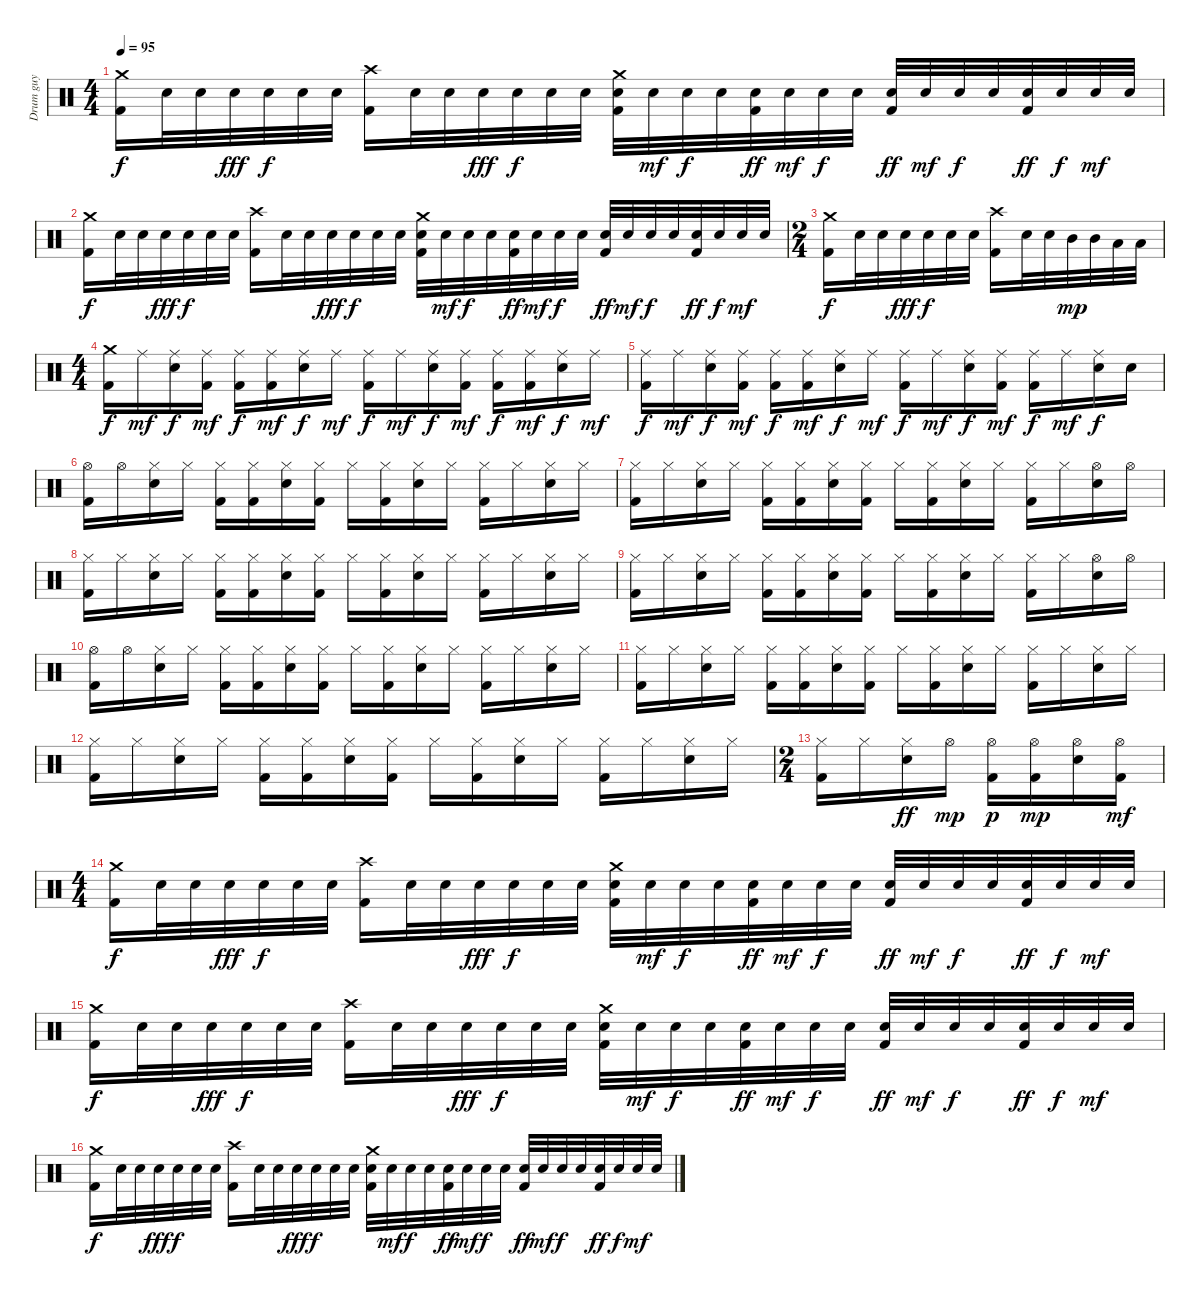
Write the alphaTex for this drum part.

\track ("Drum guy" "Drum guy") {instrument percussion}
\staff {score}
\articulation defaults
\ts (4 4)
\tempo 95
\clef neutral
\ks c
("Crash medium (hit)" "Kick (hit) 2").16{dy f} "Electric Snare (hit)".32 "Electric Snare (hit)".32 "Electric Snare (hit)".32{dy fff} "Electric Snare (hit)".32{dy f} "Electric Snare (hit)".32 "Electric Snare (hit)".32 ("Crash high (hit)" "Kick (hit) 2").16 "Electric Snare (hit)".32 "Electric Snare (hit)".32 "Electric Snare (hit)".32{dy fff} "Electric Snare (hit)".32{dy f} "Electric Snare (hit)".32 "Electric Snare (hit)".32 ("Crash medium (hit)" "Electric Snare (hit)" "Kick (hit) 2").32 "Electric Snare (hit)".32{dy mf} "Electric Snare (hit)".32{dy f} "Electric Snare (hit)".32 ("Electric Snare (hit)" "Kick (hit) 2").32{dy ff} "Electric Snare (hit)".32{dy mf} "Electric Snare (hit)".32{dy f} "Electric Snare (hit)".32 ("Electric Snare (hit)" "Kick (hit) 2").32{dy ff} "Electric Snare (hit)".32{dy mf} "Electric Snare (hit)".32{dy f} "Electric Snare (hit)".32 ("Electric Snare (hit)" "Kick (hit) 2").32{dy ff} "Electric Snare (hit)".32{dy f} "Electric Snare (hit)".32{dy mf} "Electric Snare (hit)".32 |
("Crash medium (hit)" "Kick (hit) 2").16{dy f} "Electric Snare (hit)".32 "Electric Snare (hit)".32 "Electric Snare (hit)".32{dy fff} "Electric Snare (hit)".32{dy f} "Electric Snare (hit)".32 "Electric Snare (hit)".32 ("Crash high (hit)" "Kick (hit) 2").16 "Electric Snare (hit)".32 "Electric Snare (hit)".32 "Electric Snare (hit)".32{dy fff} "Electric Snare (hit)".32{dy f} "Electric Snare (hit)".32 "Electric Snare (hit)".32 ("Crash medium (hit)" "Electric Snare (hit)" "Kick (hit) 2").32 "Electric Snare (hit)".32{dy mf} "Electric Snare (hit)".32{dy f} "Electric Snare (hit)".32 ("Electric Snare (hit)" "Kick (hit) 2").32{dy ff} "Electric Snare (hit)".32{dy mf} "Electric Snare (hit)".32{dy f} "Electric Snare (hit)".32 ("Electric Snare (hit)" "Kick (hit) 2").32{dy ff} "Electric Snare (hit)".32{dy mf} "Electric Snare (hit)".32{dy f} "Electric Snare (hit)".32 ("Electric Snare (hit)" "Kick (hit) 2").32{dy ff} "Electric Snare (hit)".32{dy f} "Electric Snare (hit)".32{dy mf} "Electric Snare (hit)".32 |
\ts (2 4)
("Crash medium (hit)" "Kick (hit) 2").16{dy f} "Electric Snare (hit)".32 "Electric Snare (hit)".32 "Electric Snare (hit)".32{dy fff} "Electric Snare (hit)".32{dy f} "Electric Snare (hit)".32 "Electric Snare (hit)".32 ("Crash high (hit)" "Kick (hit) 2").16 "Electric Snare (hit)".32 "Electric Snare (hit)".32 "Mid Tom (hit)".32{dy mp} "Mid Tom (hit)".32 "Low Tom (hit)".32 "Low Tom (hit)".32 |
\ts (4 4)
("Crash medium (hit)" "Kick (hit) 2").16{dy f} "Ride (middle)".16{dy mf} ("Ride (middle)" "Electric Snare (hit)").16{dy f} ("Ride (middle)" "Kick (hit) 2").16{dy mf} ("Ride (middle)" "Kick (hit) 2").16{dy f} ("Ride (middle)" "Kick (hit) 2").16{dy mf} ("Ride (middle)" "Electric Snare (hit)").16{dy f} "Ride (middle)".16{dy mf} ("Ride (middle)" "Kick (hit) 2").16{dy f} "Ride (middle)".16{dy mf} ("Ride (middle)" "Electric Snare (hit)").16{dy f} ("Ride (middle)" "Kick (hit) 2").16{dy mf} ("Ride (middle)" "Kick (hit) 2").16{dy f} ("Ride (middle)" "Kick (hit) 2").16{dy mf} ("Ride (middle)" "Electric Snare (hit)").16{dy f} "Ride (middle)".16{dy mf} |
("Ride (middle)" "Kick (hit) 2").16{dy f} "Ride (middle)".16{dy mf} ("Ride (middle)" "Electric Snare (hit)").16{dy f} ("Ride (middle)" "Kick (hit) 2").16{dy mf} ("Ride (middle)" "Kick (hit) 2").16{dy f} ("Ride (middle)" "Kick (hit) 2").16{dy mf} ("Ride (middle)" "Electric Snare (hit)").16{dy f} "Ride (middle)".16{dy mf} ("Ride (middle)" "Kick (hit) 2").16{dy f} "Ride (middle)".16{dy mf} ("Ride (middle)" "Electric Snare (hit)").16{dy f} ("Ride (middle)" "Kick (hit) 2").16{dy mf} ("Ride (middle)" "Kick (hit) 2").16{dy f} "Ride (middle)".16{dy mf} ("Ride (middle)" "Electric Snare (hit)").16{dy f} "Electric Snare (hit)".16 |
("Hi-Hat (open)" "Kick (hit) 2").16 "Hi-Hat (open)".16 ("Hi-Hat (closed)" "Electric Snare (hit)").16 "Hi-Hat (closed)".16 ("Hi-Hat (closed)" "Kick (hit) 2").16 ("Hi-Hat (closed)" "Kick (hit) 2").16 ("Hi-Hat (closed)" "Electric Snare (hit)").16 ("Hi-Hat (closed)" "Kick (hit) 2").16 "Hi-Hat (closed)".16 ("Hi-Hat (closed)" "Kick (hit) 2").16 ("Hi-Hat (closed)" "Electric Snare (hit)").16 "Hi-Hat (closed)".16 ("Hi-Hat (closed)" "Kick (hit) 2").16 "Hi-Hat (closed)".16 ("Hi-Hat (closed)" "Electric Snare (hit)").16 "Hi-Hat (closed)".16 |
("Hi-Hat (closed)" "Kick (hit) 2").16 "Hi-Hat (closed)".16 ("Hi-Hat (closed)" "Electric Snare (hit)").16 "Hi-Hat (closed)".16 ("Hi-Hat (closed)" "Kick (hit) 2").16 ("Hi-Hat (closed)" "Kick (hit) 2").16 ("Hi-Hat (closed)" "Electric Snare (hit)").16 ("Hi-Hat (closed)" "Kick (hit) 2").16 "Hi-Hat (closed)".16 ("Hi-Hat (closed)" "Kick (hit) 2").16 ("Hi-Hat (closed)" "Electric Snare (hit)").16 "Hi-Hat (closed)".16 ("Hi-Hat (closed)" "Kick (hit) 2").16 "Hi-Hat (closed)".16 ("Hi-Hat (open)" "Electric Snare (hit)").16 "Hi-Hat (open)".16 |
("Hi-Hat (closed)" "Kick (hit) 2").16 "Hi-Hat (closed)".16 ("Hi-Hat (closed)" "Electric Snare (hit)").16 "Hi-Hat (closed)".16 ("Hi-Hat (closed)" "Kick (hit) 2").16 ("Hi-Hat (closed)" "Kick (hit) 2").16 ("Hi-Hat (closed)" "Electric Snare (hit)").16 ("Hi-Hat (closed)" "Kick (hit) 2").16 "Hi-Hat (closed)".16 ("Hi-Hat (closed)" "Kick (hit) 2").16 ("Hi-Hat (closed)" "Electric Snare (hit)").16 "Hi-Hat (closed)".16 ("Hi-Hat (closed)" "Kick (hit) 2").16 "Hi-Hat (closed)".16 ("Hi-Hat (closed)" "Electric Snare (hit)").16 "Hi-Hat (closed)".16 |
("Hi-Hat (closed)" "Kick (hit) 2").16 "Hi-Hat (closed)".16 ("Hi-Hat (closed)" "Electric Snare (hit)").16 "Hi-Hat (closed)".16 ("Hi-Hat (closed)" "Kick (hit) 2").16 ("Hi-Hat (closed)" "Kick (hit) 2").16 ("Hi-Hat (closed)" "Electric Snare (hit)").16 ("Hi-Hat (closed)" "Kick (hit) 2").16 "Hi-Hat (closed)".16 ("Hi-Hat (closed)" "Kick (hit) 2").16 ("Hi-Hat (closed)" "Electric Snare (hit)").16 "Hi-Hat (closed)".16 ("Hi-Hat (closed)" "Kick (hit) 2").16 "Hi-Hat (closed)".16 ("Hi-Hat (open)" "Electric Snare (hit)").16 "Hi-Hat (open)".16 |
("Hi-Hat (open)" "Kick (hit) 2").16 "Hi-Hat (open)".16 ("Hi-Hat (closed)" "Electric Snare (hit)").16 "Hi-Hat (closed)".16 ("Hi-Hat (closed)" "Kick (hit) 2").16 ("Hi-Hat (closed)" "Kick (hit) 2").16 ("Hi-Hat (closed)" "Electric Snare (hit)").16 ("Hi-Hat (closed)" "Kick (hit) 2").16 "Hi-Hat (closed)".16 ("Hi-Hat (closed)" "Kick (hit) 2").16 ("Hi-Hat (closed)" "Electric Snare (hit)").16 "Hi-Hat (closed)".16 ("Hi-Hat (closed)" "Kick (hit) 2").16 "Hi-Hat (closed)".16 ("Hi-Hat (closed)" "Electric Snare (hit)").16 "Hi-Hat (closed)".16 |
("Hi-Hat (closed)" "Kick (hit) 2").16 "Hi-Hat (closed)".16 ("Hi-Hat (closed)" "Electric Snare (hit)").16 "Hi-Hat (closed)".16 ("Hi-Hat (closed)" "Kick (hit) 2").16 ("Hi-Hat (closed)" "Kick (hit) 2").16 ("Hi-Hat (closed)" "Electric Snare (hit)").16 ("Hi-Hat (closed)" "Kick (hit) 2").16 "Hi-Hat (closed)".16 ("Hi-Hat (closed)" "Kick (hit) 2").16 ("Hi-Hat (closed)" "Electric Snare (hit)").16 "Hi-Hat (closed)".16 ("Hi-Hat (closed)" "Kick (hit) 2").16 "Hi-Hat (closed)".16 ("Hi-Hat (closed)" "Electric Snare (hit)").16 "Hi-Hat (closed)".16 |
("Hi-Hat (closed)" "Kick (hit) 2").16 "Hi-Hat (closed)".16 ("Hi-Hat (closed)" "Electric Snare (hit)").16 "Hi-Hat (closed)".16 ("Hi-Hat (closed)" "Kick (hit) 2").16 ("Hi-Hat (closed)" "Kick (hit) 2").16 ("Hi-Hat (closed)" "Electric Snare (hit)").16 ("Hi-Hat (closed)" "Kick (hit) 2").16 "Hi-Hat (closed)".16 ("Hi-Hat (closed)" "Kick (hit) 2").16 ("Hi-Hat (closed)" "Electric Snare (hit)").16 "Hi-Hat (closed)".16 ("Hi-Hat (closed)" "Kick (hit) 2").16 "Hi-Hat (closed)".16 ("Hi-Hat (closed)" "Electric Snare (hit)").16 "Hi-Hat (closed)".16 |
\ts (2 4)
("Hi-Hat (closed)" "Kick (hit) 2").16 "Hi-Hat (closed)".16 ("Hi-Hat (closed)" "Electric Snare (hit)").16{dy ff} "Hi-Hat (open)".16{dy mp} ("Hi-Hat (open)" "Kick (hit) 2").16{dy p} ("Hi-Hat (open)" "Kick (hit) 2").16{dy mp} ("Hi-Hat (open)" "Electric Snare (hit)").16 ("Hi-Hat (open)" "Kick (hit) 2").16{dy mf} |
\ts (4 4)
("Crash medium (hit)" "Kick (hit) 2").16{dy f} "Electric Snare (hit)".32 "Electric Snare (hit)".32 "Electric Snare (hit)".32{dy fff} "Electric Snare (hit)".32{dy f} "Electric Snare (hit)".32 "Electric Snare (hit)".32 ("Crash high (hit)" "Kick (hit) 2").16 "Electric Snare (hit)".32 "Electric Snare (hit)".32 "Electric Snare (hit)".32{dy fff} "Electric Snare (hit)".32{dy f} "Electric Snare (hit)".32 "Electric Snare (hit)".32 ("Crash medium (hit)" "Electric Snare (hit)" "Kick (hit) 2").32 "Electric Snare (hit)".32{dy mf} "Electric Snare (hit)".32{dy f} "Electric Snare (hit)".32 ("Electric Snare (hit)" "Kick (hit) 2").32{dy ff} "Electric Snare (hit)".32{dy mf} "Electric Snare (hit)".32{dy f} "Electric Snare (hit)".32 ("Electric Snare (hit)" "Kick (hit) 2").32{dy ff} "Electric Snare (hit)".32{dy mf} "Electric Snare (hit)".32{dy f} "Electric Snare (hit)".32 ("Electric Snare (hit)" "Kick (hit) 2").32{dy ff} "Electric Snare (hit)".32{dy f} "Electric Snare (hit)".32{dy mf} "Electric Snare (hit)".32 |
("Crash medium (hit)" "Kick (hit) 2").16{dy f} "Electric Snare (hit)".32 "Electric Snare (hit)".32 "Electric Snare (hit)".32{dy fff} "Electric Snare (hit)".32{dy f} "Electric Snare (hit)".32 "Electric Snare (hit)".32 ("Crash high (hit)" "Kick (hit) 2").16 "Electric Snare (hit)".32 "Electric Snare (hit)".32 "Electric Snare (hit)".32{dy fff} "Electric Snare (hit)".32{dy f} "Electric Snare (hit)".32 "Electric Snare (hit)".32 ("Crash medium (hit)" "Electric Snare (hit)" "Kick (hit) 2").32 "Electric Snare (hit)".32{dy mf} "Electric Snare (hit)".32{dy f} "Electric Snare (hit)".32 ("Electric Snare (hit)" "Kick (hit) 2").32{dy ff} "Electric Snare (hit)".32{dy mf} "Electric Snare (hit)".32{dy f} "Electric Snare (hit)".32 ("Electric Snare (hit)" "Kick (hit) 2").32{dy ff} "Electric Snare (hit)".32{dy mf} "Electric Snare (hit)".32{dy f} "Electric Snare (hit)".32 ("Electric Snare (hit)" "Kick (hit) 2").32{dy ff} "Electric Snare (hit)".32{dy f} "Electric Snare (hit)".32{dy mf} "Electric Snare (hit)".32 |
("Crash medium (hit)" "Kick (hit) 2").16{dy f} "Electric Snare (hit)".32 "Electric Snare (hit)".32 "Electric Snare (hit)".32{dy fff} "Electric Snare (hit)".32{dy f} "Electric Snare (hit)".32 "Electric Snare (hit)".32 ("Crash high (hit)" "Kick (hit) 2").16 "Electric Snare (hit)".32 "Electric Snare (hit)".32 "Electric Snare (hit)".32{dy fff} "Electric Snare (hit)".32{dy f} "Electric Snare (hit)".32 "Electric Snare (hit)".32 ("Crash medium (hit)" "Electric Snare (hit)" "Kick (hit) 2").32 "Electric Snare (hit)".32{dy mf} "Electric Snare (hit)".32{dy f} "Electric Snare (hit)".32 ("Electric Snare (hit)" "Kick (hit) 2").32{dy ff} "Electric Snare (hit)".32{dy mf} "Electric Snare (hit)".32{dy f} "Electric Snare (hit)".32 ("Electric Snare (hit)" "Kick (hit) 2").32{dy ff} "Electric Snare (hit)".32{dy mf} "Electric Snare (hit)".32{dy f} "Electric Snare (hit)".32 ("Electric Snare (hit)" "Kick (hit) 2").32{dy ff} "Electric Snare (hit)".32{dy f} "Electric Snare (hit)".32{dy mf} "Electric Snare (hit)".32
